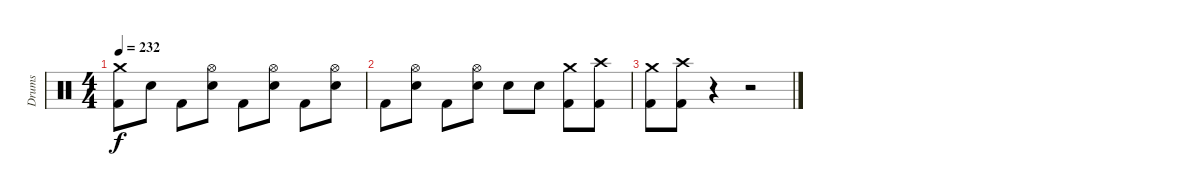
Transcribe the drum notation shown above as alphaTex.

\track ("Drums" "Drums") {instrument percussion}
\staff {score}
\articulation defaults
\ts (4 4)
\tempo 232
\clef neutral
\ks c
("Kick (hit) 2" "Crash medium (hit)").8{dy f} "Electric Snare (hit)".8 "Kick (hit) 2".8 ("Electric Snare (hit)" "Hi-Hat (open)").8 "Kick (hit) 2".8 ("Electric Snare (hit)" "Hi-Hat (open)").8 "Kick (hit) 2".8 ("Electric Snare (hit)" "Hi-Hat (open)").8 |
"Kick (hit) 2".8 ("Electric Snare (hit)" "Hi-Hat (open)").8 "Kick (hit) 2".8 ("Electric Snare (hit)" "Hi-Hat (open)").8 "Electric Snare (hit)".8 "Electric Snare (hit)".8 ("Crash medium (hit)" "Kick (hit) 2").8 ("Crash high (hit)" "Kick (hit) 2").8 |
("Crash medium (hit)" "Kick (hit) 2").8 ("Crash high (hit)" "Kick (hit) 2").8 r.4 r.2
